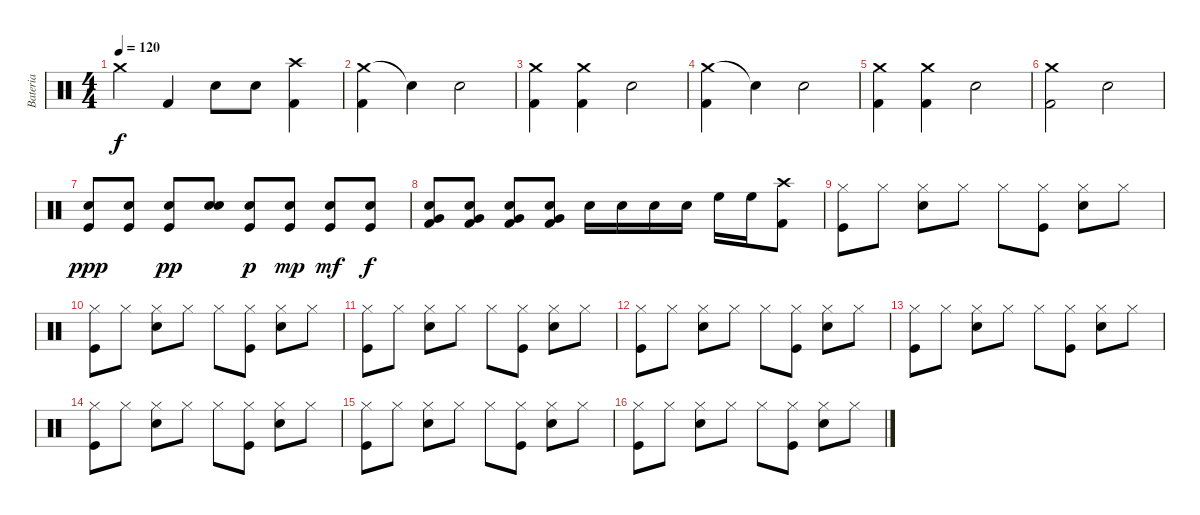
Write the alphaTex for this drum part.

\track ("Bateria" "Bateria") {instrument percussion}
\staff {score}
\articulation defaults
\ts (4 4)
\tempo 120
\clef neutral
\ks c "Crash medium (hit)".4{dy f} "Kick (hit) 2".4 "Snare (hit) 2".8 "Snare (hit) 2".8
("Crash high (hit)" "Kick (hit) 2").4 |
("Crash medium (hit)" "Kick (hit) 2").4 "Snare (hit)"{t}.4 "Snare (hit) 2".2 |
("Crash medium (hit)" "Kick (hit) 2").4 ("Crash medium (hit)" "Kick (hit) 2").4 "Snare (hit) 2".2 |
("Crash medium (hit)" "Kick (hit) 2").4 "Snare (hit)"{t}.4 "Snare (hit) 2".2 |
("Crash medium (hit)" "Kick (hit) 2").4 ("Crash medium (hit)" "Kick (hit) 2").4 "Snare (hit) 2".2 |
("Crash medium (hit)" "Kick (hit) 2").2 "Snare (hit) 2".2 |
("Kick (hit)" "Snare (hit) 2").8{dy ppp} ("Snare (hit) 2" "Kick (hit)").8 ("Snare (hit) 2" "Kick (hit)").8{dy pp} ("Snare (hit) 2" "Snare (hit) 2").8 ("Snare (hit) 2" "Kick (hit)").8{dy p} ("Snare (hit) 2" "Kick (hit)").8{dy mp} ("Snare (hit) 2" "Kick (hit)").8{dy mf} ("Snare (hit) 2" "Kick (hit)").8{dy f} |
("Snare (hit) 2" "Very Low Tom (hit)" "Kick (hit) 2").8 ("Snare (hit) 2" "Very Low Tom (hit)" "Kick (hit) 2").8 ("Snare (hit) 2" "Very Low Tom (hit)" "Kick (hit) 2").8 ("Snare (hit) 2" "Very Low Tom (hit)" "Kick (hit) 2").8{volume 16} "Snare (hit) 2".16 "Snare (hit) 2".16 "Snare (hit) 2".16 "Snare (hit) 2".16 "High Floor Tom (hit)".16 "High Floor Tom (hit)".16 ("Crash high (hit)" "Kick (hit) 2").8 |
("Hi-Hat (closed)" "Kick (hit)").8 "Hi-Hat (closed)".8 ("Hi-Hat (closed)" "Snare (hit) 2").8 "Hi-Hat (closed)".8 "Hi-Hat (closed)".8 ("Hi-Hat (closed)" "Kick (hit)").8 ("Hi-Hat (closed)" "Snare (hit) 2").8 "Hi-Hat (closed)".8 |
("Hi-Hat (closed)" "Kick (hit)").8 "Hi-Hat (closed)".8 ("Hi-Hat (closed)" "Snare (hit) 2").8 "Hi-Hat (closed)".8 "Hi-Hat (closed)".8 ("Hi-Hat (closed)" "Kick (hit)").8 ("Hi-Hat (closed)" "Snare (hit) 2").8 "Hi-Hat (closed)".8 |
("Hi-Hat (closed)" "Kick (hit)").8 "Hi-Hat (closed)".8 ("Hi-Hat (closed)" "Snare (hit) 2").8 "Hi-Hat (closed)".8 "Hi-Hat (closed)".8 ("Hi-Hat (closed)" "Kick (hit)").8 ("Hi-Hat (closed)" "Snare (hit) 2").8 "Hi-Hat (closed)".8 |
("Hi-Hat (closed)" "Kick (hit)").8 "Hi-Hat (closed)".8 ("Hi-Hat (closed)" "Snare (hit) 2").8 "Hi-Hat (closed)".8 "Hi-Hat (closed)".8 ("Hi-Hat (closed)" "Kick (hit)").8 ("Hi-Hat (closed)" "Snare (hit) 2").8 "Hi-Hat (closed)".8 |
("Hi-Hat (closed)" "Kick (hit)").8 "Hi-Hat (closed)".8 ("Hi-Hat (closed)" "Snare (hit) 2").8 "Hi-Hat (closed)".8 "Hi-Hat (closed)".8 ("Hi-Hat (closed)" "Kick (hit)").8 ("Hi-Hat (closed)" "Snare (hit) 2").8 "Hi-Hat (closed)".8 |
("Hi-Hat (closed)" "Kick (hit)").8 "Hi-Hat (closed)".8 ("Hi-Hat (closed)" "Snare (hit) 2").8 "Hi-Hat (closed)".8 "Hi-Hat (closed)".8 ("Hi-Hat (closed)" "Kick (hit)").8 ("Hi-Hat (closed)" "Snare (hit) 2").8 "Hi-Hat (closed)".8 |
("Hi-Hat (closed)" "Kick (hit)").8 "Hi-Hat (closed)".8 ("Hi-Hat (closed)" "Snare (hit) 2").8 "Hi-Hat (closed)".8 "Hi-Hat (closed)".8 ("Hi-Hat (closed)" "Kick (hit)").8 ("Hi-Hat (closed)" "Snare (hit) 2").8 "Hi-Hat (closed)".8 |
("Hi-Hat (closed)" "Kick (hit)").8 "Hi-Hat (closed)".8 ("Hi-Hat (closed)" "Snare (hit) 2").8 "Hi-Hat (closed)".8 "Hi-Hat (closed)".8 ("Hi-Hat (closed)" "Kick (hit)").8 ("Hi-Hat (closed)" "Snare (hit) 2").8 "Hi-Hat (closed)".8
